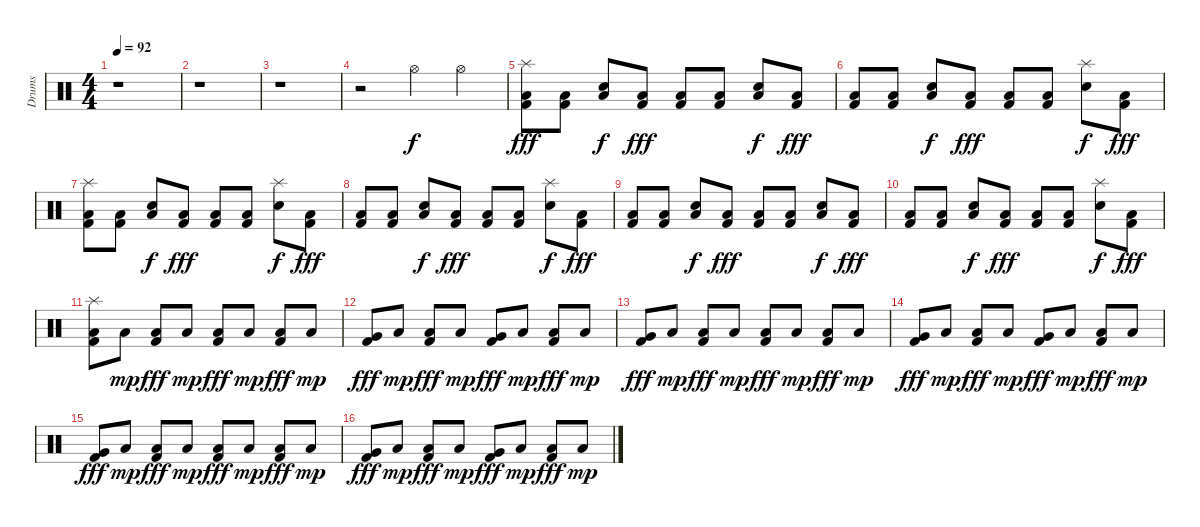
\track ("Drums" "Drums") {instrument percussion}
\staff {score}
\articulation defaults
\ts (4 4)
\tempo 92
\clef neutral
\ks c
r.1{dy f} |
r.1 |
r.1 |
r.2 "Hi-Hat (open)".4 "Hi-Hat (open)".4 |
("Splash (hit)" "Low Floor Tom (hit)" "Kick (hit) 2").8{dy fff} ("Low Floor Tom (hit)" "Kick (hit) 2").8 ("Snare (hit) 2" "Low Floor Tom (hit)").8{dy f} ("Low Floor Tom (hit)" "Kick (hit) 2").8{dy fff} ("Low Floor Tom (hit)" "Kick (hit) 2").8 ("Low Floor Tom (hit)" "Kick (hit) 2").8 ("Snare (hit) 2" "Low Floor Tom (hit)").8{dy f} ("Low Floor Tom (hit)" "Kick (hit) 2").8{dy fff} |
("Low Floor Tom (hit)" "Kick (hit) 2").8 ("Low Floor Tom (hit)" "Kick (hit) 2").8 ("Snare (hit) 2" "Low Floor Tom (hit)").8{dy f} ("Low Floor Tom (hit)" "Kick (hit) 2").8{dy fff} ("Low Floor Tom (hit)" "Kick (hit) 2").8 ("Low Floor Tom (hit)" "Kick (hit) 2").8 ("Splash (hit)" "Snare (hit) 2").8{dy f} ("Low Floor Tom (hit)" "Kick (hit) 2").8{dy fff} |
("Splash (hit)" "Low Floor Tom (hit)" "Kick (hit) 2").8 ("Low Floor Tom (hit)" "Kick (hit) 2").8 ("Snare (hit) 2" "Low Floor Tom (hit)").8{dy f} ("Low Floor Tom (hit)" "Kick (hit) 2").8{dy fff} ("Low Floor Tom (hit)" "Kick (hit) 2").8 ("Low Floor Tom (hit)" "Kick (hit) 2").8 ("Splash (hit)" "Snare (hit) 2").8{dy f} ("Low Floor Tom (hit)" "Kick (hit) 2").8{dy fff} |
("Low Floor Tom (hit)" "Kick (hit) 2").8 ("Low Floor Tom (hit)" "Kick (hit) 2").8 ("Snare (hit) 2" "Low Floor Tom (hit)").8{dy f} ("Low Floor Tom (hit)" "Kick (hit) 2").8{dy fff} ("Low Floor Tom (hit)" "Kick (hit) 2").8 ("Low Floor Tom (hit)" "Kick (hit) 2").8 ("Splash (hit)" "Snare (hit) 2").8{dy f} ("Low Floor Tom (hit)" "Kick (hit) 2").8{dy fff} |
("Low Floor Tom (hit)" "Kick (hit) 2").8 ("Low Floor Tom (hit)" "Kick (hit) 2").8 ("Snare (hit) 2" "Low Floor Tom (hit)").8{dy f} ("Low Floor Tom (hit)" "Kick (hit) 2").8{dy fff} ("Low Floor Tom (hit)" "Kick (hit) 2").8 ("Low Floor Tom (hit)" "Kick (hit) 2").8 ("Snare (hit) 2" "Low Floor Tom (hit)").8{dy f} ("Low Floor Tom (hit)" "Kick (hit) 2").8{dy fff} |
("Low Floor Tom (hit)" "Kick (hit) 2").8 ("Low Floor Tom (hit)" "Kick (hit) 2").8 ("Snare (hit) 2" "Low Floor Tom (hit)").8{dy f} ("Low Floor Tom (hit)" "Kick (hit) 2").8{dy fff} ("Low Floor Tom (hit)" "Kick (hit) 2").8 ("Low Floor Tom (hit)" "Kick (hit) 2").8 ("Splash (hit)" "Snare (hit) 2").8{dy f} ("Low Floor Tom (hit)" "Kick (hit) 2").8{dy fff} |
("Splash (hit)" "Low Floor Tom (hit)" "Kick (hit) 2").8 "Low Floor Tom (hit)".8{dy mp} ("Low Floor Tom (hit)" "Kick (hit) 2").8{dy fff} "Low Floor Tom (hit)".8{dy mp} ("Low Floor Tom (hit)" "Kick (hit) 2").8{dy fff} "Low Floor Tom (hit)".8{dy mp} ("Low Floor Tom (hit)" "Kick (hit) 2").8{dy fff} "Low Floor Tom (hit)".8{dy mp} |
("Very Low Tom (hit)" "Kick (hit) 2").8{dy fff} "Low Floor Tom (hit)".8{dy mp} ("Low Floor Tom (hit)" "Kick (hit) 2").8{dy fff} "Low Floor Tom (hit)".8{dy mp} ("Very Low Tom (hit)" "Kick (hit) 2").8{dy fff} "Low Floor Tom (hit)".8{dy mp} ("Low Floor Tom (hit)" "Kick (hit) 2").8{dy fff} "Low Floor Tom (hit)".8{dy mp} |
("Very Low Tom (hit)" "Kick (hit) 2").8{dy fff} "Low Floor Tom (hit)".8{dy mp} ("Low Floor Tom (hit)" "Kick (hit) 2").8{dy fff} "Low Floor Tom (hit)".8{dy mp} ("Low Floor Tom (hit)" "Kick (hit) 2").8{dy fff} "Low Floor Tom (hit)".8{dy mp} ("Low Floor Tom (hit)" "Kick (hit) 2").8{dy fff} "Low Floor Tom (hit)".8{dy mp} |
("Very Low Tom (hit)" "Kick (hit) 2").8{dy fff} "Low Floor Tom (hit)".8{dy mp} ("Low Floor Tom (hit)" "Kick (hit) 2").8{dy fff} "Low Floor Tom (hit)".8{dy mp} ("Very Low Tom (hit)" "Kick (hit) 2").8{dy fff} "Low Floor Tom (hit)".8{dy mp} ("Low Floor Tom (hit)" "Kick (hit) 2").8{dy fff} "Low Floor Tom (hit)".8{dy mp} |
("Very Low Tom (hit)" "Kick (hit) 2").8{dy fff} "Low Floor Tom (hit)".8{dy mp} ("Low Floor Tom (hit)" "Kick (hit) 2").8{dy fff} "Low Floor Tom (hit)".8{dy mp} ("Low Floor Tom (hit)" "Kick (hit) 2").8{dy fff} "Low Floor Tom (hit)".8{dy mp} ("Low Floor Tom (hit)" "Kick (hit) 2").8{dy fff} "Low Floor Tom (hit)".8{dy mp} |
("Very Low Tom (hit)" "Kick (hit) 2").8{dy fff} "Low Floor Tom (hit)".8{dy mp} ("Low Floor Tom (hit)" "Kick (hit) 2").8{dy fff} "Low Floor Tom (hit)".8{dy mp} ("Very Low Tom (hit)" "Kick (hit) 2").8{dy fff} "Low Floor Tom (hit)".8{dy mp} ("Low Floor Tom (hit)" "Kick (hit) 2").8{dy fff} "Low Floor Tom (hit)".8{dy mp}
